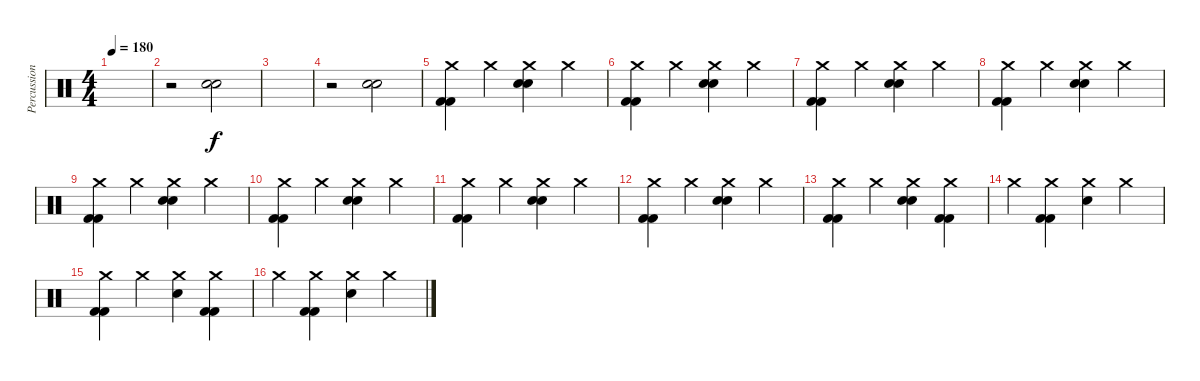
\track ("Percussion" "Percussion") {instrument percussion}
\staff {score}
\articulation defaults
\ts (4 4)
\tempo 180
\clef neutral
\ks c
|
r.2 ("Electric Snare (hit)" "Snare (hit) 2").2 |
|
r.2 ("Electric Snare (hit)" "Snare (hit) 2").2 |
("Crash medium (hit)" "Kick (hit) 2" "Kick (hit) 2").4 "Crash medium (hit)".4 ("Crash medium (hit)" "Electric Snare (hit)" "Snare (hit) 2").4 "Crash medium (hit)".4 |
("Crash medium (hit)" "Kick (hit) 2" "Kick (hit) 2").4 "Crash medium (hit)".4 ("Crash medium (hit)" "Electric Snare (hit)" "Snare (hit) 2").4 "Crash medium (hit)".4 |
("Crash medium (hit)" "Kick (hit) 2" "Kick (hit) 2").4 "Crash medium (hit)".4 ("Crash medium (hit)" "Electric Snare (hit)" "Snare (hit) 2").4 "Crash medium (hit)".4 |
("Crash medium (hit)" "Kick (hit) 2" "Kick (hit) 2").4 "Crash medium (hit)".4 ("Crash medium (hit)" "Electric Snare (hit)" "Snare (hit) 2").4 "Crash medium (hit)".4 |
("Crash medium (hit)" "Kick (hit) 2" "Kick (hit) 2").4 "Crash medium (hit)".4 ("Crash medium (hit)" "Electric Snare (hit)" "Snare (hit) 2").4 "Crash medium (hit)".4 |
("Crash medium (hit)" "Kick (hit) 2" "Kick (hit) 2").4 "Crash medium (hit)".4 ("Crash medium (hit)" "Electric Snare (hit)" "Snare (hit) 2").4 "Crash medium (hit)".4 |
("Crash medium (hit)" "Kick (hit) 2" "Kick (hit) 2").4 "Crash medium (hit)".4 ("Crash medium (hit)" "Electric Snare (hit)" "Snare (hit) 2").4 "Crash medium (hit)".4 |
("Crash medium (hit)" "Kick (hit) 2" "Kick (hit) 2").4 "Crash medium (hit)".4 ("Crash medium (hit)" "Electric Snare (hit)" "Snare (hit) 2").4 "Crash medium (hit)".4 |
("Crash medium (hit)" "Kick (hit) 2" "Kick (hit) 2").4 "Crash medium (hit)".4 ("Crash medium (hit)" "Electric Snare (hit)" "Snare (hit) 2").4 ("Crash medium (hit)" "Kick (hit) 2" "Kick (hit) 2").4 |
"Crash medium (hit)".4 ("Crash medium (hit)" "Kick (hit) 2" "Kick (hit) 2").4 ("Crash medium (hit)" "Electric Snare (hit)").4 "Crash medium (hit)".4 |
("Crash medium (hit)" "Kick (hit) 2" "Kick (hit) 2").4 "Crash medium (hit)".4 ("Crash medium (hit)" "Electric Snare (hit)").4 ("Crash medium (hit)" "Kick (hit) 2" "Kick (hit) 2").4 |
"Crash medium (hit)".4 ("Crash medium (hit)" "Kick (hit) 2" "Kick (hit) 2").4 ("Crash medium (hit)" "Electric Snare (hit)").4 "Crash medium (hit)".4
